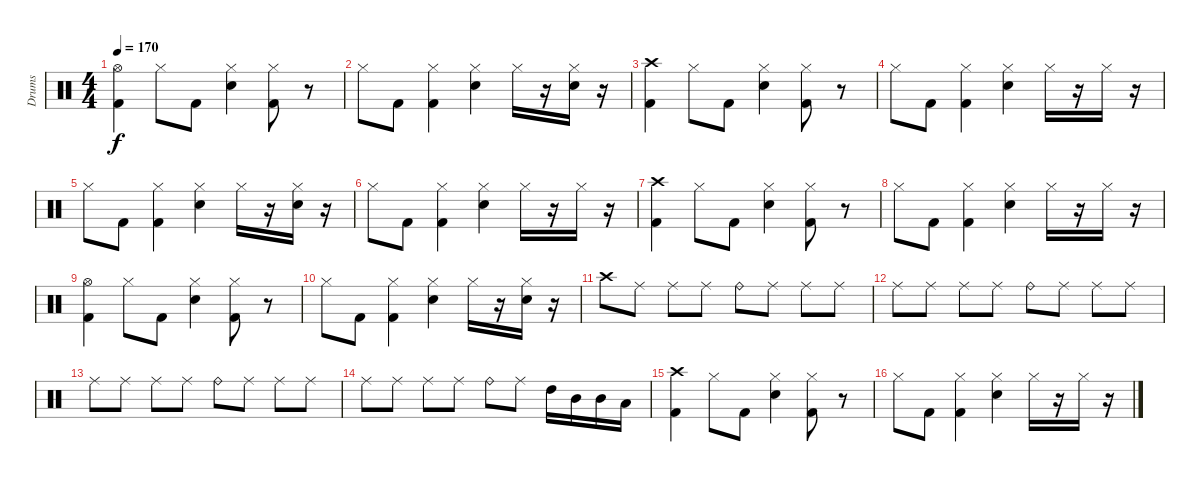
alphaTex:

\track ("Drums" "Drums") {instrument percussion}
\staff {score}
\articulation defaults
\ts (4 4)
\tempo 170
\clef neutral
\ks c
("Hi-Hat (open)" "Kick (hit) 2").4{dy f} "Hi-Hat (closed)".8 "Kick (hit) 2".8 ("Hi-Hat (closed)" "Snare (hit) 2").4 ("Hi-Hat (closed)" "Kick (hit) 2").8 r.8 |
"Hi-Hat (closed)".8 "Kick (hit) 2".8 ("Hi-Hat (closed)" "Kick (hit) 2").4 ("Hi-Hat (closed)" "Snare (hit) 2").4 "Hi-Hat (closed)".16 r.16 ("Hi-Hat (closed)" "Snare (hit) 2").16 r.16 |
("Crash high (hit)" "Kick (hit) 2").4 "Hi-Hat (closed)".8 "Kick (hit) 2".8 ("Hi-Hat (closed)" "Snare (hit) 2").4 ("Hi-Hat (closed)" "Kick (hit) 2").8 r.8 |
"Hi-Hat (closed)".8 "Kick (hit) 2".8 ("Hi-Hat (closed)" "Kick (hit) 2").4 ("Hi-Hat (closed)" "Snare (hit) 2").4 "Hi-Hat (closed)".16 r.16 "Hi-Hat (closed)".16 r.16 |
"Hi-Hat (closed)".8 "Kick (hit) 2".8 ("Hi-Hat (closed)" "Kick (hit) 2").4 ("Hi-Hat (closed)" "Snare (hit) 2").4 "Hi-Hat (closed)".16 r.16 ("Hi-Hat (closed)" "Snare (hit) 2").16 r.16 |
"Hi-Hat (closed)".8 "Kick (hit) 2".8 ("Hi-Hat (closed)" "Kick (hit) 2").4 ("Hi-Hat (closed)" "Snare (hit) 2").4 "Hi-Hat (closed)".16 r.16 "Hi-Hat (closed)".16 r.16 |
("Crash high (hit)" "Kick (hit) 2").4 "Hi-Hat (closed)".8 "Kick (hit) 2".8 ("Hi-Hat (closed)" "Snare (hit) 2").4 ("Hi-Hat (closed)" "Kick (hit) 2").8 r.8 |
"Hi-Hat (closed)".8 "Kick (hit) 2".8 ("Hi-Hat (closed)" "Kick (hit) 2").4 ("Hi-Hat (closed)" "Snare (hit) 2").4 "Hi-Hat (closed)".16 r.16 "Hi-Hat (closed)".16 r.16 |
("Hi-Hat (open)" "Kick (hit) 2").4 "Hi-Hat (closed)".8 "Kick (hit) 2".8 ("Hi-Hat (closed)" "Snare (hit) 2").4 ("Hi-Hat (closed)" "Kick (hit) 2").8 r.8 |
"Hi-Hat (closed)".8 "Kick (hit) 2".8 ("Hi-Hat (closed)" "Kick (hit) 2").4 ("Hi-Hat (closed)" "Snare (hit) 2").4 "Hi-Hat (closed)".16 r.16 ("Hi-Hat (closed)" "Snare (hit) 2").16 r.16 |
"Crash high (hit)".8{volume 8} "Ride (middle)".8 "Ride (middle)".8 "Ride (middle)".8 "Ride (bell)".8 "Ride (middle)".8 "Ride (middle)".8 "Ride (middle)".8 |
"Ride (middle)".8 "Ride (middle)".8 "Ride (middle)".8 "Ride (middle)".8 "Ride (bell)".8 "Ride (middle)".8 "Ride (middle)".8 "Ride (middle)".8 |
"Ride (middle)".8 "Ride (middle)".8 "Ride (middle)".8 "Ride (middle)".8 "Ride (bell)".8 "Ride (middle)".8 "Ride (middle)".8 "Ride (middle)".8 |
"Ride (middle)".8 "Ride (middle)".8 "Ride (middle)".8 "Ride (middle)".8 "Ride (bell)".8 "Ride (middle)".8 "High Tom (hit)".16 "Mid Tom (hit)".16 "Mid Tom (hit)".16 "Low Tom (hit)".16 |
("Crash high (hit)" "Kick (hit) 2").4{volume 13} "Hi-Hat (closed)".8 "Kick (hit) 2".8 ("Hi-Hat (closed)" "Snare (hit) 2").4 ("Hi-Hat (closed)" "Kick (hit) 2").8 r.8 |
"Hi-Hat (closed)".8 "Kick (hit) 2".8 ("Hi-Hat (closed)" "Kick (hit) 2").4 ("Hi-Hat (closed)" "Snare (hit) 2").4 "Hi-Hat (closed)".16 r.16 "Hi-Hat (closed)".16 r.16
